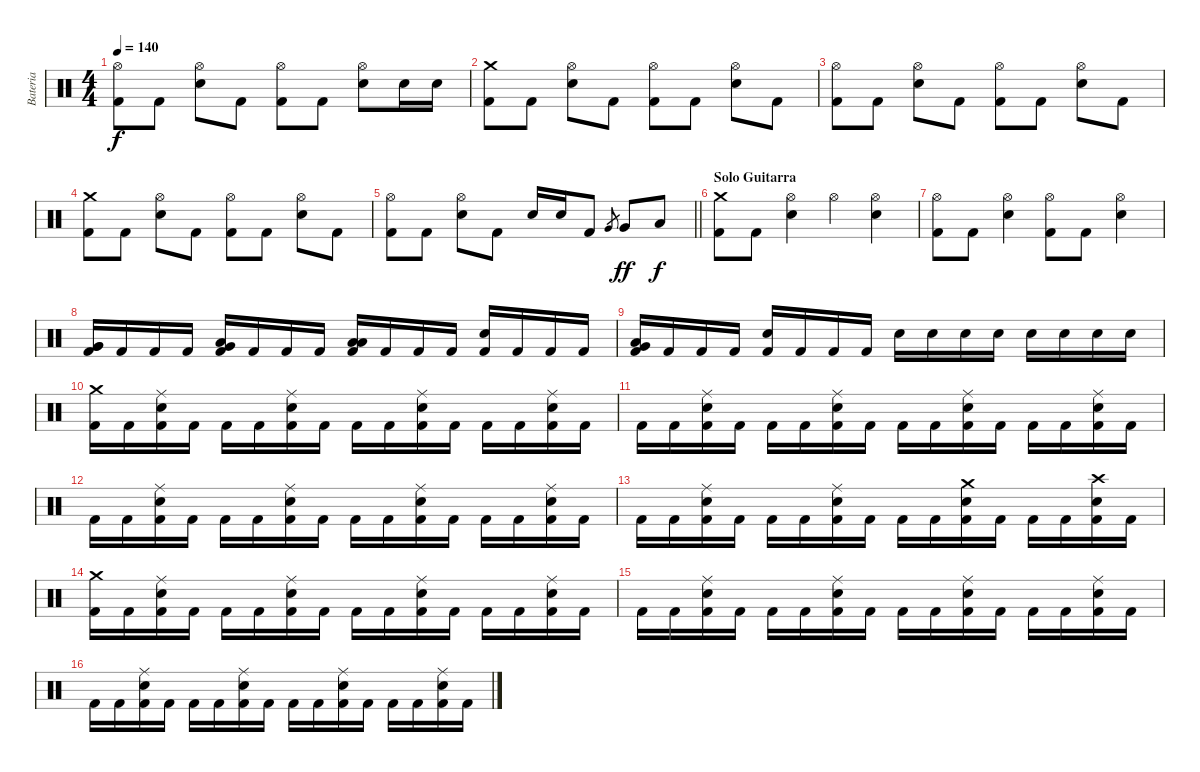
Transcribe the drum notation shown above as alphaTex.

\track ("Bateria" "Bateria") {instrument percussion}
\staff {score}
\articulation defaults
\ts (4 4)
\tempo 140
\clef neutral
\ks c
("Hi-Hat (open)" "Kick (hit) 2").8{dy f} "Kick (hit) 2".8 ("Hi-Hat (open)" "Snare (hit) 2").8 "Kick (hit) 2".8 ("Hi-Hat (open)" "Kick (hit) 2").8 "Kick (hit) 2".8 ("Hi-Hat (open)" "Snare (hit) 2").8 "Snare (hit) 2".16 "Snare (hit) 2".16 |
("Crash medium (hit)" "Kick (hit) 2").8 "Kick (hit) 2".8 ("Hi-Hat (open)" "Snare (hit) 2").8 "Kick (hit) 2".8 ("Hi-Hat (open)" "Kick (hit) 2").8 "Kick (hit) 2".8 ("Hi-Hat (open)" "Snare (hit) 2").8 "Kick (hit) 2".8 |
("Hi-Hat (open)" "Kick (hit) 2").8 "Kick (hit) 2".8 ("Hi-Hat (open)" "Snare (hit) 2").8 "Kick (hit) 2".8 ("Hi-Hat (open)" "Kick (hit) 2").8 "Kick (hit) 2".8 ("Hi-Hat (open)" "Snare (hit) 2").8 "Kick (hit) 2".8 |
("Crash medium (hit)" "Kick (hit) 2").8 "Kick (hit) 2".8 ("Hi-Hat (open)" "Snare (hit) 2").8 "Kick (hit) 2".8 ("Hi-Hat (open)" "Kick (hit) 2").8 "Kick (hit) 2".8 ("Hi-Hat (open)" "Snare (hit) 2").8 "Kick (hit) 2".8 |
\barLineRight lightlight
("Hi-Hat (open)" "Kick (hit) 2").8 "Kick (hit) 2".8 ("Hi-Hat (open)" "Snare (hit) 2").8 "Kick (hit) 2".8 "Snare (hit) 2".16 "Snare (hit) 2".16 "Kick (hit) 2".8 "Very Low Tom (hit)".8{gr} "Very Low Tom (hit)".8{dy ff} "Low Floor Tom (hit)".8{dy f} |
\section ("" "Solo Guitarra")
("Crash medium (hit)" "Kick (hit) 2").8 "Kick (hit) 2".8 ("Hi-Hat (open)" "Snare (hit) 2").4 "Hi-Hat (open)".4 ("Hi-Hat (open)" "Snare (hit) 2").4 |
("Hi-Hat (open)" "Kick (hit) 2").8 "Kick (hit) 2".8 ("Hi-Hat (open)" "Snare (hit) 2").4 ("Hi-Hat (open)" "Kick (hit) 2").8 "Kick (hit) 2".8 ("Hi-Hat (open)" "Snare (hit) 2").4 |
("Very Low Tom (hit)" "Very Low Tom (hit)" "Kick (hit) 2").16 "Kick (hit) 2".16 "Kick (hit) 2".16 "Kick (hit) 2".16 ("Very Low Tom (hit)" "Low Floor Tom (hit)" "Kick (hit) 2").16 "Kick (hit) 2".16 "Kick (hit) 2".16 "Kick (hit) 2".16 ("Low Floor Tom (hit)" "Low Floor Tom (hit)" "Kick (hit) 2").16 "Kick (hit) 2".16 "Kick (hit) 2".16 "Kick (hit) 2".16 ("Snare (hit) 2" "Kick (hit) 2").16 "Kick (hit) 2".16 "Kick (hit) 2".16 "Kick (hit) 2".16 |
("Low Floor Tom (hit)" "Very Low Tom (hit)" "Kick (hit) 2").16 "Kick (hit) 2".16 "Kick (hit) 2".16 "Kick (hit) 2".16 ("Snare (hit) 2" "Kick (hit) 2").16 "Kick (hit) 2".16 "Kick (hit) 2".16 "Kick (hit) 2".16 "Snare (hit) 2".16 "Snare (hit) 2".16 "Snare (hit) 2".16 "Snare (hit) 2".16 "Snare (hit) 2".16 "Snare (hit) 2".16 "Snare (hit) 2".16 "Snare (hit) 2".16 |
("Crash medium (hit)" "Kick (hit) 2").16 "Kick (hit) 2".16 ("Ride (middle)" "Snare (hit) 2" "Kick (hit) 2").16 "Kick (hit) 2".16 "Kick (hit) 2".16 "Kick (hit) 2".16 ("Ride (middle)" "Snare (hit) 2" "Kick (hit) 2").16 "Kick (hit) 2".16 "Kick (hit) 2".16 "Kick (hit) 2".16 ("Ride (middle)" "Snare (hit) 2" "Kick (hit) 2").16 "Kick (hit) 2".16 "Kick (hit) 2".16 "Kick (hit) 2".16 ("Ride (middle)" "Snare (hit) 2" "Kick (hit) 2").16 "Kick (hit) 2".16 |
"Kick (hit) 2".16 "Kick (hit) 2".16 ("Ride (middle)" "Snare (hit) 2" "Kick (hit) 2").16 "Kick (hit) 2".16 "Kick (hit) 2".16 "Kick (hit) 2".16 ("Ride (middle)" "Snare (hit) 2" "Kick (hit) 2").16 "Kick (hit) 2".16 "Kick (hit) 2".16 "Kick (hit) 2".16 ("Ride (middle)" "Snare (hit) 2" "Kick (hit) 2").16 "Kick (hit) 2".16 "Kick (hit) 2".16 "Kick (hit) 2".16 ("Ride (middle)" "Snare (hit) 2" "Kick (hit) 2").16 "Kick (hit) 2".16 |
"Kick (hit) 2".16 "Kick (hit) 2".16 ("Ride (middle)" "Snare (hit) 2" "Kick (hit) 2").16 "Kick (hit) 2".16 "Kick (hit) 2".16 "Kick (hit) 2".16 ("Ride (middle)" "Snare (hit) 2" "Kick (hit) 2").16 "Kick (hit) 2".16 "Kick (hit) 2".16 "Kick (hit) 2".16 ("Ride (middle)" "Snare (hit) 2" "Kick (hit) 2").16 "Kick (hit) 2".16 "Kick (hit) 2".16 "Kick (hit) 2".16 ("Ride (middle)" "Snare (hit) 2" "Kick (hit) 2").16 "Kick (hit) 2".16 |
"Kick (hit) 2".16 "Kick (hit) 2".16 ("Ride (middle)" "Snare (hit) 2" "Kick (hit) 2").16 "Kick (hit) 2".16 "Kick (hit) 2".16 "Kick (hit) 2".16 ("Ride (middle)" "Snare (hit) 2" "Kick (hit) 2").16 "Kick (hit) 2".16 "Kick (hit) 2".16 "Kick (hit) 2".16 ("Crash medium (hit)" "Snare (hit) 2" "Kick (hit) 2").16 "Kick (hit) 2".16 "Kick (hit) 2".16 "Kick (hit) 2".16 ("Crash high (hit)" "Snare (hit) 2" "Kick (hit) 2").16 "Kick (hit) 2".16 |
("Crash medium (hit)" "Kick (hit) 2").16 "Kick (hit) 2".16 ("Ride (middle)" "Snare (hit) 2" "Kick (hit) 2").16 "Kick (hit) 2".16 "Kick (hit) 2".16 "Kick (hit) 2".16 ("Ride (middle)" "Snare (hit) 2" "Kick (hit) 2").16 "Kick (hit) 2".16 "Kick (hit) 2".16 "Kick (hit) 2".16 ("Ride (middle)" "Snare (hit) 2" "Kick (hit) 2").16 "Kick (hit) 2".16 "Kick (hit) 2".16 "Kick (hit) 2".16 ("Ride (middle)" "Snare (hit) 2" "Kick (hit) 2").16 "Kick (hit) 2".16 |
"Kick (hit) 2".16 "Kick (hit) 2".16 ("Ride (middle)" "Snare (hit) 2" "Kick (hit) 2").16 "Kick (hit) 2".16 "Kick (hit) 2".16 "Kick (hit) 2".16 ("Ride (middle)" "Snare (hit) 2" "Kick (hit) 2").16 "Kick (hit) 2".16 "Kick (hit) 2".16 "Kick (hit) 2".16 ("Ride (middle)" "Snare (hit) 2" "Kick (hit) 2").16 "Kick (hit) 2".16 "Kick (hit) 2".16 "Kick (hit) 2".16 ("Ride (middle)" "Snare (hit) 2" "Kick (hit) 2").16 "Kick (hit) 2".16 |
"Kick (hit) 2".16 "Kick (hit) 2".16 ("Ride (middle)" "Snare (hit) 2" "Kick (hit) 2").16 "Kick (hit) 2".16 "Kick (hit) 2".16 "Kick (hit) 2".16 ("Ride (middle)" "Snare (hit) 2" "Kick (hit) 2").16 "Kick (hit) 2".16 "Kick (hit) 2".16 "Kick (hit) 2".16 ("Ride (middle)" "Snare (hit) 2" "Kick (hit) 2").16 "Kick (hit) 2".16 "Kick (hit) 2".16 "Kick (hit) 2".16 ("Ride (middle)" "Snare (hit) 2" "Kick (hit) 2").16 "Kick (hit) 2".16
